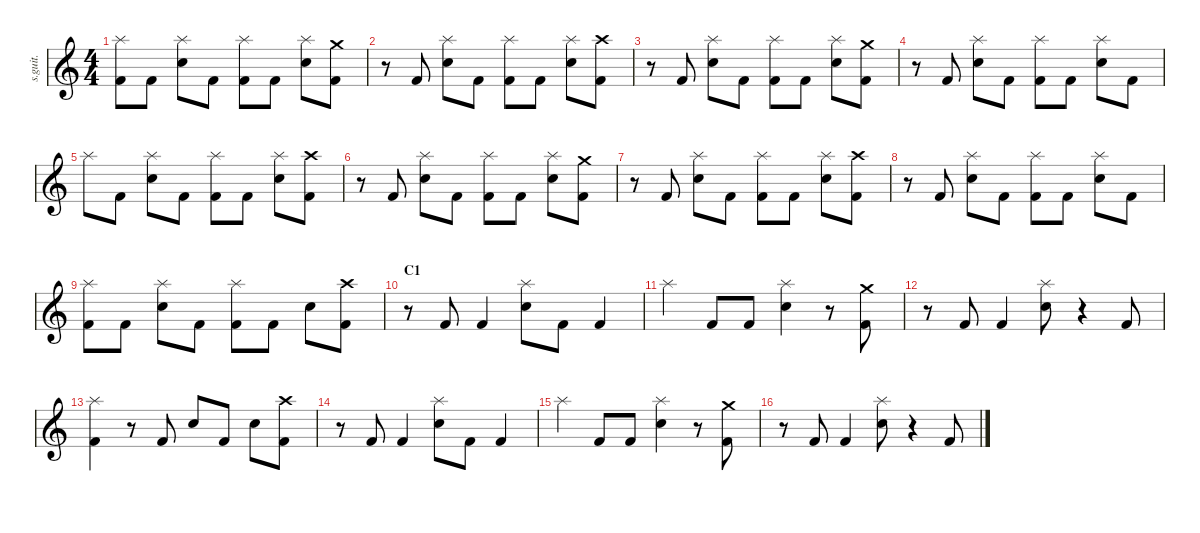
\defaultSystemsLayout 4
\hideDynamics
\bracketExtendMode nobrackets
\track ("Batterie" "s.guit.") {instrument percussion}
\staff {score}
\articulation defaults
\ts (4 4)
\tempo (170 hide)
\clef g2
\ks c
("Splash (hit)" "Kick (hit) 2").8{lyrics (0 "") lyrics (1 "") lyrics (2 "") lyrics (3 "") lyrics (4 "") dy f} "Kick (hit) 2".8{lyrics (0 "") lyrics (1 "") lyrics (2 "") lyrics (3 "") lyrics (4 "") dy fff} ("Splash (hit)" "Electric Snare (hit)").8{lyrics (0 "") lyrics (1 "") lyrics (2 "") lyrics (3 "") lyrics (4 "") dy f} "Kick (hit) 2".8{lyrics (0 "") lyrics (1 "") lyrics (2 "") lyrics (3 "") lyrics (4 "") dy fff} ("Splash (hit)" "Kick (hit) 2").8{lyrics (0 "") lyrics (1 "") lyrics (2 "") lyrics (3 "") lyrics (4 "") dy f} "Kick (hit) 2".8{lyrics (0 "") lyrics (1 "") lyrics (2 "") lyrics (3 "") lyrics (4 "") dy fff} ("Splash (hit)" "Electric Snare (hit)").8{lyrics (0 "") lyrics (1 "") lyrics (2 "") lyrics (3 "") lyrics (4 "") dy f} ("Crash medium (hit)" "Kick (hit) 2").8{lyrics (0 "") lyrics (1 "") lyrics (2 "") lyrics (3 "") lyrics (4 "")} |
r.8 "Kick (hit) 2".8{lyrics (0 "") lyrics (1 "") lyrics (2 "") lyrics (3 "") lyrics (4 "") dy fff} ("Splash (hit)" "Electric Snare (hit)").8{lyrics (0 "") lyrics (1 "") lyrics (2 "") lyrics (3 "") lyrics (4 "") dy f} "Kick (hit) 2".8{lyrics (0 "") lyrics (1 "") lyrics (2 "") lyrics (3 "") lyrics (4 "") dy fff} ("Splash (hit)" "Kick (hit) 2").8{lyrics (0 "") lyrics (1 "") lyrics (2 "") lyrics (3 "") lyrics (4 "") dy f} "Kick (hit) 2".8{lyrics (0 "") lyrics (1 "") lyrics (2 "") lyrics (3 "") lyrics (4 "") dy fff} ("Splash (hit)" "Electric Snare (hit)").8{lyrics (0 "") lyrics (1 "") lyrics (2 "") lyrics (3 "") lyrics (4 "") dy f} ("Crash high (hit)" "Kick (hit) 2").8{lyrics (0 "") lyrics (1 "") lyrics (2 "") lyrics (3 "") lyrics (4 "")} |
r.8 "Kick (hit) 2".8{lyrics (0 "") lyrics (1 "") lyrics (2 "") lyrics (3 "") lyrics (4 "") dy fff} ("Splash (hit)" "Electric Snare (hit)").8{lyrics (0 "") lyrics (1 "") lyrics (2 "") lyrics (3 "") lyrics (4 "") dy f} "Kick (hit) 2".8{lyrics (0 "") lyrics (1 "") lyrics (2 "") lyrics (3 "") lyrics (4 "") dy fff} ("Splash (hit)" "Kick (hit) 2").8{lyrics (0 "") lyrics (1 "") lyrics (2 "") lyrics (3 "") lyrics (4 "") dy f} "Kick (hit) 2".8{lyrics (0 "") lyrics (1 "") lyrics (2 "") lyrics (3 "") lyrics (4 "") dy fff} ("Splash (hit)" "Electric Snare (hit)").8{lyrics (0 "") lyrics (1 "") lyrics (2 "") lyrics (3 "") lyrics (4 "") dy f} ("Crash medium (hit)" "Kick (hit) 2").8{lyrics (0 "") lyrics (1 "") lyrics (2 "") lyrics (3 "") lyrics (4 "")} |
r.8 "Kick (hit) 2".8{lyrics (0 "") lyrics (1 "") lyrics (2 "") lyrics (3 "") lyrics (4 "") dy fff} ("Splash (hit)" "Electric Snare (hit)").8{lyrics (0 "") lyrics (1 "") lyrics (2 "") lyrics (3 "") lyrics (4 "") dy f} "Kick (hit) 2".8{lyrics (0 "") lyrics (1 "") lyrics (2 "") lyrics (3 "") lyrics (4 "") dy fff} ("Splash (hit)" "Kick (hit) 2").8{lyrics (0 "") lyrics (1 "") lyrics (2 "") lyrics (3 "") lyrics (4 "") dy f} "Kick (hit) 2".8{lyrics (0 "") lyrics (1 "") lyrics (2 "") lyrics (3 "") lyrics (4 "") dy fff} ("Splash (hit)" "Electric Snare (hit)").8{lyrics (0 "") lyrics (1 "") lyrics (2 "") lyrics (3 "") lyrics (4 "") dy f} "Kick (hit) 2".8{lyrics (0 "") lyrics (1 "") lyrics (2 "") lyrics (3 "") lyrics (4 "") dy fff} |
"Splash (hit)".8{lyrics (0 "") lyrics (1 "") lyrics (2 "") lyrics (3 "") lyrics (4 "") dy f} "Kick (hit) 2".8{lyrics (0 "") lyrics (1 "") lyrics (2 "") lyrics (3 "") lyrics (4 "") dy fff} ("Splash (hit)" "Electric Snare (hit)").8{lyrics (0 "") lyrics (1 "") lyrics (2 "") lyrics (3 "") lyrics (4 "") dy f} "Kick (hit) 2".8{lyrics (0 "") lyrics (1 "") lyrics (2 "") lyrics (3 "") lyrics (4 "") dy fff} ("Splash (hit)" "Kick (hit) 2").8{lyrics (0 "") lyrics (1 "") lyrics (2 "") lyrics (3 "") lyrics (4 "") dy f} "Kick (hit) 2".8{lyrics (0 "") lyrics (1 "") lyrics (2 "") lyrics (3 "") lyrics (4 "") dy fff} ("Splash (hit)" "Electric Snare (hit)").8{lyrics (0 "") lyrics (1 "") lyrics (2 "") lyrics (3 "") lyrics (4 "") dy f} ("Crash high (hit)" "Kick (hit) 2").8{lyrics (0 "") lyrics (1 "") lyrics (2 "") lyrics (3 "") lyrics (4 "")} |
r.8 "Kick (hit) 2".8{lyrics (0 "") lyrics (1 "") lyrics (2 "") lyrics (3 "") lyrics (4 "") dy fff} ("Splash (hit)" "Electric Snare (hit)").8{lyrics (0 "") lyrics (1 "") lyrics (2 "") lyrics (3 "") lyrics (4 "") dy f} "Kick (hit) 2".8{lyrics (0 "") lyrics (1 "") lyrics (2 "") lyrics (3 "") lyrics (4 "") dy fff} ("Splash (hit)" "Kick (hit) 2").8{lyrics (0 "") lyrics (1 "") lyrics (2 "") lyrics (3 "") lyrics (4 "") dy f} "Kick (hit) 2".8{lyrics (0 "") lyrics (1 "") lyrics (2 "") lyrics (3 "") lyrics (4 "") dy fff} ("Splash (hit)" "Electric Snare (hit)").8{lyrics (0 "") lyrics (1 "") lyrics (2 "") lyrics (3 "") lyrics (4 "") dy f} ("Crash medium (hit)" "Kick (hit) 2").8{lyrics (0 "") lyrics (1 "") lyrics (2 "") lyrics (3 "") lyrics (4 "")} |
r.8 "Kick (hit) 2".8{lyrics (0 "") lyrics (1 "") lyrics (2 "") lyrics (3 "") lyrics (4 "") dy fff} ("Splash (hit)" "Electric Snare (hit)").8{lyrics (0 "") lyrics (1 "") lyrics (2 "") lyrics (3 "") lyrics (4 "") dy f} "Kick (hit) 2".8{lyrics (0 "") lyrics (1 "") lyrics (2 "") lyrics (3 "") lyrics (4 "") dy fff} ("Splash (hit)" "Kick (hit) 2").8{lyrics (0 "") lyrics (1 "") lyrics (2 "") lyrics (3 "") lyrics (4 "") dy f} "Kick (hit) 2".8{lyrics (0 "") lyrics (1 "") lyrics (2 "") lyrics (3 "") lyrics (4 "") dy fff} ("Splash (hit)" "Electric Snare (hit)").8{lyrics (0 "") lyrics (1 "") lyrics (2 "") lyrics (3 "") lyrics (4 "") dy f} ("Crash high (hit)" "Kick (hit) 2").8{lyrics (0 "") lyrics (1 "") lyrics (2 "") lyrics (3 "") lyrics (4 "")} |
r.8 "Kick (hit) 2".8{lyrics (0 "") lyrics (1 "") lyrics (2 "") lyrics (3 "") lyrics (4 "") dy fff} ("Splash (hit)" "Electric Snare (hit)").8{lyrics (0 "") lyrics (1 "") lyrics (2 "") lyrics (3 "") lyrics (4 "") dy f} "Kick (hit) 2".8{lyrics (0 "") lyrics (1 "") lyrics (2 "") lyrics (3 "") lyrics (4 "") dy fff} ("Splash (hit)" "Kick (hit) 2").8{lyrics (0 "") lyrics (1 "") lyrics (2 "") lyrics (3 "") lyrics (4 "") dy f} "Kick (hit) 2".8{lyrics (0 "") lyrics (1 "") lyrics (2 "") lyrics (3 "") lyrics (4 "") dy fff} ("Splash (hit)" "Electric Snare (hit)").8{lyrics (0 "") lyrics (1 "") lyrics (2 "") lyrics (3 "") lyrics (4 "") dy f} "Kick (hit) 2".8{lyrics (0 "") lyrics (1 "") lyrics (2 "") lyrics (3 "") lyrics (4 "") dy fff} |
("Splash (hit)" "Kick (hit) 2").8{lyrics (0 "") lyrics (1 "") lyrics (2 "") lyrics (3 "") lyrics (4 "") dy f} "Kick (hit) 2".8{lyrics (0 "") lyrics (1 "") lyrics (2 "") lyrics (3 "") lyrics (4 "") dy fff} ("Splash (hit)" "Electric Snare (hit)").8{lyrics (0 "") lyrics (1 "") lyrics (2 "") lyrics (3 "") lyrics (4 "") dy f} "Kick (hit) 2".8{lyrics (0 "") lyrics (1 "") lyrics (2 "") lyrics (3 "") lyrics (4 "") dy fff} ("Splash (hit)" "Kick (hit) 2").8{lyrics (0 "") lyrics (1 "") lyrics (2 "") lyrics (3 "") lyrics (4 "") dy f} "Kick (hit) 2".8{lyrics (0 "") lyrics (1 "") lyrics (2 "") lyrics (3 "") lyrics (4 "") dy fff} "Electric Snare (hit)".8{lyrics (0 "") lyrics (1 "") lyrics (2 "") lyrics (3 "") lyrics (4 "")} ("Crash high (hit)" "Kick (hit) 2").8{lyrics (0 "") lyrics (1 "") lyrics (2 "") lyrics (3 "") lyrics (4 "")} |
\section ("" "C1")
r.8 "Kick (hit) 2".8{lyrics (0 "") lyrics (1 "") lyrics (2 "") lyrics (3 "") lyrics (4 "")} "Kick (hit) 2".4{lyrics (0 "") lyrics (1 "") lyrics (2 "") lyrics (3 "") lyrics (4 "")} ("Splash (hit)" "Electric Snare (hit)").8{lyrics (0 "") lyrics (1 "") lyrics (2 "") lyrics (3 "") lyrics (4 "")} "Kick (hit) 2".8{lyrics (0 "") lyrics (1 "") lyrics (2 "") lyrics (3 "") lyrics (4 "")} "Kick (hit) 2".4{lyrics (0 "") lyrics (1 "") lyrics (2 "") lyrics (3 "") lyrics (4 "")} |
"Splash (hit)".4{lyrics (0 "") lyrics (1 "") lyrics (2 "") lyrics (3 "") lyrics (4 "")} "Kick (hit) 2".8{lyrics (0 "") lyrics (1 "") lyrics (2 "") lyrics (3 "") lyrics (4 "")} "Kick (hit) 2".8{lyrics (0 "") lyrics (1 "") lyrics (2 "") lyrics (3 "") lyrics (4 "")} ("Splash (hit)" "Electric Snare (hit)").4{lyrics (0 "") lyrics (1 "") lyrics (2 "") lyrics (3 "") lyrics (4 "")} r.8 ("Crash medium (hit)" "Kick (hit) 2").8{lyrics (0 "") lyrics (1 "") lyrics (2 "") lyrics (3 "") lyrics (4 "")} |
r.8 "Kick (hit) 2".8{lyrics (0 "") lyrics (1 "") lyrics (2 "") lyrics (3 "") lyrics (4 "")} "Kick (hit) 2".4{lyrics (0 "") lyrics (1 "") lyrics (2 "") lyrics (3 "") lyrics (4 "")} ("Splash (hit)" "Electric Snare (hit)").8{lyrics (0 "") lyrics (1 "") lyrics (2 "") lyrics (3 "") lyrics (4 "")} r.4 "Kick (hit) 2".8{lyrics (0 "") lyrics (1 "") lyrics (2 "") lyrics (3 "") lyrics (4 "")} |
("Splash (hit)" "Kick (hit) 2").4{lyrics (0 "") lyrics (1 "") lyrics (2 "") lyrics (3 "") lyrics (4 "")} r.8 "Kick (hit) 2".8{lyrics (0 "") lyrics (1 "") lyrics (2 "") lyrics (3 "") lyrics (4 "")} "Electric Snare (hit)".8{lyrics (0 "") lyrics (1 "") lyrics (2 "") lyrics (3 "") lyrics (4 "")} "Kick (hit) 2".8{lyrics (0 "") lyrics (1 "") lyrics (2 "") lyrics (3 "") lyrics (4 "")} "Electric Snare (hit)".8{lyrics (0 "") lyrics (1 "") lyrics (2 "") lyrics (3 "") lyrics (4 "")} ("Crash high (hit)" "Kick (hit) 2").8{lyrics (0 "") lyrics (1 "") lyrics (2 "") lyrics (3 "") lyrics (4 "")} |
r.8 "Kick (hit) 2".8{lyrics (0 "") lyrics (1 "") lyrics (2 "") lyrics (3 "") lyrics (4 "")} "Kick (hit) 2".4{lyrics (0 "") lyrics (1 "") lyrics (2 "") lyrics (3 "") lyrics (4 "")} ("Splash (hit)" "Electric Snare (hit)").8{lyrics (0 "") lyrics (1 "") lyrics (2 "") lyrics (3 "") lyrics (4 "")} "Kick (hit) 2".8{lyrics (0 "") lyrics (1 "") lyrics (2 "") lyrics (3 "") lyrics (4 "")} "Kick (hit) 2".4{lyrics (0 "") lyrics (1 "") lyrics (2 "") lyrics (3 "") lyrics (4 "")} |
"Splash (hit)".4{lyrics (0 "") lyrics (1 "") lyrics (2 "") lyrics (3 "") lyrics (4 "")} "Kick (hit) 2".8{lyrics (0 "") lyrics (1 "") lyrics (2 "") lyrics (3 "") lyrics (4 "")} "Kick (hit) 2".8{lyrics (0 "") lyrics (1 "") lyrics (2 "") lyrics (3 "") lyrics (4 "")} ("Splash (hit)" "Electric Snare (hit)").4{lyrics (0 "") lyrics (1 "") lyrics (2 "") lyrics (3 "") lyrics (4 "")} r.8 ("Crash medium (hit)" "Kick (hit) 2").8{lyrics (0 "") lyrics (1 "") lyrics (2 "") lyrics (3 "") lyrics (4 "")} |
r.8 "Kick (hit) 2".8{lyrics (0 "") lyrics (1 "") lyrics (2 "") lyrics (3 "") lyrics (4 "")} "Kick (hit) 2".4{lyrics (0 "") lyrics (1 "") lyrics (2 "") lyrics (3 "") lyrics (4 "")} ("Splash (hit)" "Electric Snare (hit)").8{lyrics (0 "") lyrics (1 "") lyrics (2 "") lyrics (3 "") lyrics (4 "")} r.4 "Kick (hit) 2".8{lyrics (0 "") lyrics (1 "") lyrics (2 "") lyrics (3 "") lyrics (4 "")}
